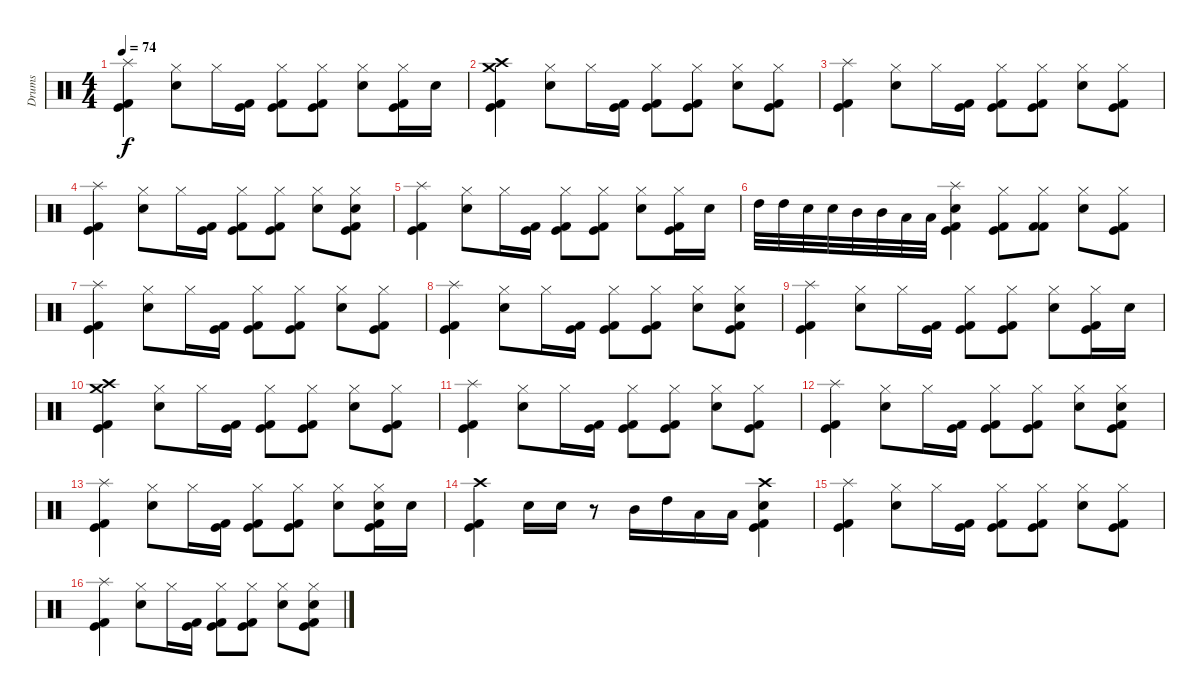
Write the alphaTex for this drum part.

\track ("Drums" "Drums") {instrument percussion}
\staff {score}
\articulation defaults
\ts (4 4)
\tempo 74
\clef neutral
\ks c
("Splash (hit)" "Kick (hit) 2" "Kick (hit)").4{dy f} ("Hi-Hat (closed)" "Electric Snare (hit)").8 "Hi-Hat (closed)".16 ("Kick (hit) 2" "Kick (hit)").16 ("Hi-Hat (closed)" "Kick (hit) 2" "Kick (hit)").8 ("Hi-Hat (closed)" "Kick (hit)" "Kick (hit) 2").8 ("Hi-Hat (closed)" "Electric Snare (hit)").8 ("Hi-Hat (closed)" "Kick (hit) 2" "Kick (hit)").16 "Electric Snare (hit)".16 |
("Crash medium (hit)" "Crash high (hit)" "Kick (hit) 2" "Kick (hit)").4 ("Hi-Hat (closed)" "Electric Snare (hit)").8 "Hi-Hat (closed)".16 ("Kick (hit) 2" "Kick (hit)").16 ("Hi-Hat (closed)" "Kick (hit) 2" "Kick (hit)").8 ("Hi-Hat (closed)" "Kick (hit)" "Kick (hit) 2").8 ("Hi-Hat (closed)" "Electric Snare (hit)").8 ("Hi-Hat (closed)" "Kick (hit) 2" "Kick (hit)").8 |
("Splash (hit)" "Kick (hit) 2" "Kick (hit)").4 ("Hi-Hat (closed)" "Electric Snare (hit)").8 "Hi-Hat (closed)".16 ("Kick (hit) 2" "Kick (hit)").16 ("Hi-Hat (closed)" "Kick (hit) 2" "Kick (hit)").8 ("Hi-Hat (closed)" "Kick (hit)" "Kick (hit) 2").8 ("Hi-Hat (closed)" "Electric Snare (hit)").8 ("Hi-Hat (closed)" "Kick (hit) 2" "Kick (hit)").8 |
("Splash (hit)" "Kick (hit) 2" "Kick (hit)").4 ("Hi-Hat (closed)" "Electric Snare (hit)").8 "Hi-Hat (closed)".16 ("Kick (hit) 2" "Kick (hit)").16 ("Hi-Hat (closed)" "Kick (hit) 2" "Kick (hit)").8 ("Hi-Hat (closed)" "Kick (hit)" "Kick (hit) 2").8 ("Hi-Hat (closed)" "Electric Snare (hit)").8 ("Hi-Hat (closed)" "Electric Snare (hit)" "Kick (hit) 2" "Kick (hit)").8 |
("Splash (hit)" "Kick (hit) 2" "Kick (hit)").4 ("Hi-Hat (closed)" "Electric Snare (hit)").8 "Hi-Hat (closed)".16 ("Kick (hit) 2" "Kick (hit)").16 ("Hi-Hat (closed)" "Kick (hit) 2" "Kick (hit)").8 ("Hi-Hat (closed)" "Kick (hit)" "Kick (hit) 2").8 ("Hi-Hat (closed)" "Electric Snare (hit)").8 ("Hi-Hat (closed)" "Kick (hit) 2" "Kick (hit)").16 "Electric Snare (hit)".16 |
"High Tom (hit)".32 "High Tom (hit)".32 "Electric Snare (hit)".32 "Electric Snare (hit)".32 "Mid Tom (hit)".32 "Mid Tom (hit)".32 "Low Floor Tom (hit)".32 "Low Floor Tom (hit)".32 ("Splash (hit)" "Electric Snare (hit)" "Kick (hit) 2" "Kick (hit)").4 ("Hi-Hat (closed)" "Kick (hit) 2" "Kick (hit)").8 ("Hi-Hat (closed)" "Kick (hit) 2" "Kick (hit) 2").8 ("Hi-Hat (closed)" "Electric Snare (hit)").8 ("Hi-Hat (closed)" "Kick (hit) 2" "Kick (hit)").8 |
("Splash (hit)" "Kick (hit) 2" "Kick (hit)").4 ("Hi-Hat (closed)" "Electric Snare (hit)").8 "Hi-Hat (closed)".16 ("Kick (hit) 2" "Kick (hit)").16 ("Hi-Hat (closed)" "Kick (hit) 2" "Kick (hit)").8 ("Hi-Hat (closed)" "Kick (hit)" "Kick (hit) 2").8 ("Hi-Hat (closed)" "Electric Snare (hit)").8 ("Hi-Hat (closed)" "Kick (hit) 2" "Kick (hit)").8 |
("Splash (hit)" "Kick (hit) 2" "Kick (hit)").4 ("Hi-Hat (closed)" "Electric Snare (hit)").8 "Hi-Hat (closed)".16 ("Kick (hit) 2" "Kick (hit)").16 ("Hi-Hat (closed)" "Kick (hit) 2" "Kick (hit)").8 ("Hi-Hat (closed)" "Kick (hit)" "Kick (hit) 2").8 ("Hi-Hat (closed)" "Electric Snare (hit)").8 ("Hi-Hat (closed)" "Electric Snare (hit)" "Kick (hit) 2" "Kick (hit)").8 |
("Splash (hit)" "Kick (hit) 2" "Kick (hit)").4 ("Hi-Hat (closed)" "Electric Snare (hit)").8 "Hi-Hat (closed)".16 ("Kick (hit) 2" "Kick (hit)").16 ("Hi-Hat (closed)" "Kick (hit) 2" "Kick (hit)").8 ("Hi-Hat (closed)" "Kick (hit)" "Kick (hit) 2").8 ("Hi-Hat (closed)" "Electric Snare (hit)").8 ("Hi-Hat (closed)" "Kick (hit) 2" "Kick (hit)").16 "Electric Snare (hit)".16 |
("Crash medium (hit)" "Crash high (hit)" "Kick (hit) 2" "Kick (hit)").4 ("Hi-Hat (closed)" "Electric Snare (hit)").8 "Hi-Hat (closed)".16 ("Kick (hit) 2" "Kick (hit)").16 ("Hi-Hat (closed)" "Kick (hit) 2" "Kick (hit)").8 ("Hi-Hat (closed)" "Kick (hit)" "Kick (hit) 2").8 ("Hi-Hat (closed)" "Electric Snare (hit)").8 ("Hi-Hat (closed)" "Kick (hit) 2" "Kick (hit)").8 |
("Splash (hit)" "Kick (hit) 2" "Kick (hit)").4 ("Hi-Hat (closed)" "Electric Snare (hit)").8 "Hi-Hat (closed)".16 ("Kick (hit) 2" "Kick (hit)").16 ("Hi-Hat (closed)" "Kick (hit) 2" "Kick (hit)").8 ("Hi-Hat (closed)" "Kick (hit)" "Kick (hit) 2").8 ("Hi-Hat (closed)" "Electric Snare (hit)").8 ("Hi-Hat (closed)" "Kick (hit) 2" "Kick (hit)").8 |
("Splash (hit)" "Kick (hit) 2" "Kick (hit)").4 ("Hi-Hat (closed)" "Electric Snare (hit)").8 "Hi-Hat (closed)".16 ("Kick (hit) 2" "Kick (hit)").16 ("Hi-Hat (closed)" "Kick (hit) 2" "Kick (hit)").8 ("Hi-Hat (closed)" "Kick (hit)" "Kick (hit) 2").8 ("Hi-Hat (closed)" "Electric Snare (hit)").8 ("Hi-Hat (closed)" "Electric Snare (hit)" "Kick (hit) 2" "Kick (hit)").8 |
("Splash (hit)" "Kick (hit) 2" "Kick (hit)").4 ("Hi-Hat (closed)" "Electric Snare (hit)").8 "Hi-Hat (closed)".16 ("Kick (hit) 2" "Kick (hit)").16 ("Hi-Hat (closed)" "Kick (hit) 2" "Kick (hit)").8 ("Hi-Hat (closed)" "Kick (hit)" "Kick (hit) 2").8 ("Hi-Hat (closed)" "Electric Snare (hit)").8 ("Hi-Hat (closed)" "Electric Snare (hit)" "Kick (hit) 2" "Kick (hit)").16 "Electric Snare (hit)".16 |
("Crash high (hit)" "Kick (hit) 2" "Kick (hit)").4 "Electric Snare (hit)".16 "Electric Snare (hit)".16 r.8 "Mid Tom (hit)".16 "High Tom (hit)".16 "Low Floor Tom (hit)".16 "Low Floor Tom (hit)".16 ("Crash high (hit)" "Kick (hit) 2" "Kick (hit)" "Electric Snare (hit)").4 |
("Splash (hit)" "Kick (hit) 2" "Kick (hit)").4 ("Hi-Hat (closed)" "Electric Snare (hit)").8 "Hi-Hat (closed)".16 ("Kick (hit) 2" "Kick (hit)").16 ("Hi-Hat (closed)" "Kick (hit) 2" "Kick (hit)").8 ("Hi-Hat (closed)" "Kick (hit)" "Kick (hit) 2").8 ("Hi-Hat (closed)" "Electric Snare (hit)").8 ("Hi-Hat (closed)" "Kick (hit) 2" "Kick (hit)").8 |
("Splash (hit)" "Kick (hit) 2" "Kick (hit)").4 ("Hi-Hat (closed)" "Electric Snare (hit)").8 "Hi-Hat (closed)".16 ("Kick (hit) 2" "Kick (hit)").16 ("Hi-Hat (closed)" "Kick (hit) 2" "Kick (hit)").8 ("Hi-Hat (closed)" "Kick (hit)" "Kick (hit) 2").8 ("Hi-Hat (closed)" "Electric Snare (hit)").8 ("Hi-Hat (closed)" "Electric Snare (hit)" "Kick (hit) 2" "Kick (hit)").8
